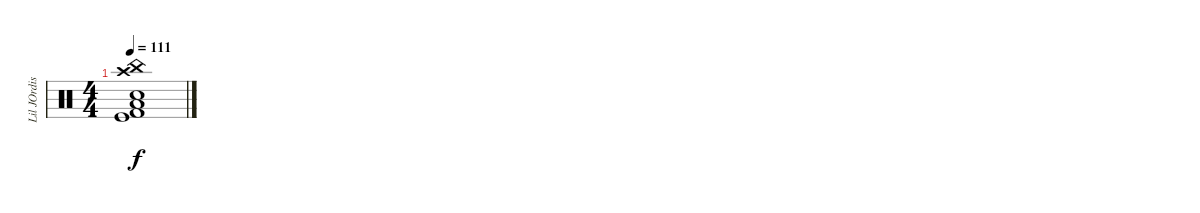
\track ("Lil JOrdison" "Lil JOrdis") {instrument percussion}
\staff {score}
\articulation defaults
\ts (4 4)
\tempo 111
\clef neutral
\ks c
("Crash high (hit)" "China (hit)" "Kick (hit)" "Low Floor Tom (hit)" "Kick (hit) 2" "Electric Snare (hit)").1{dy f}
